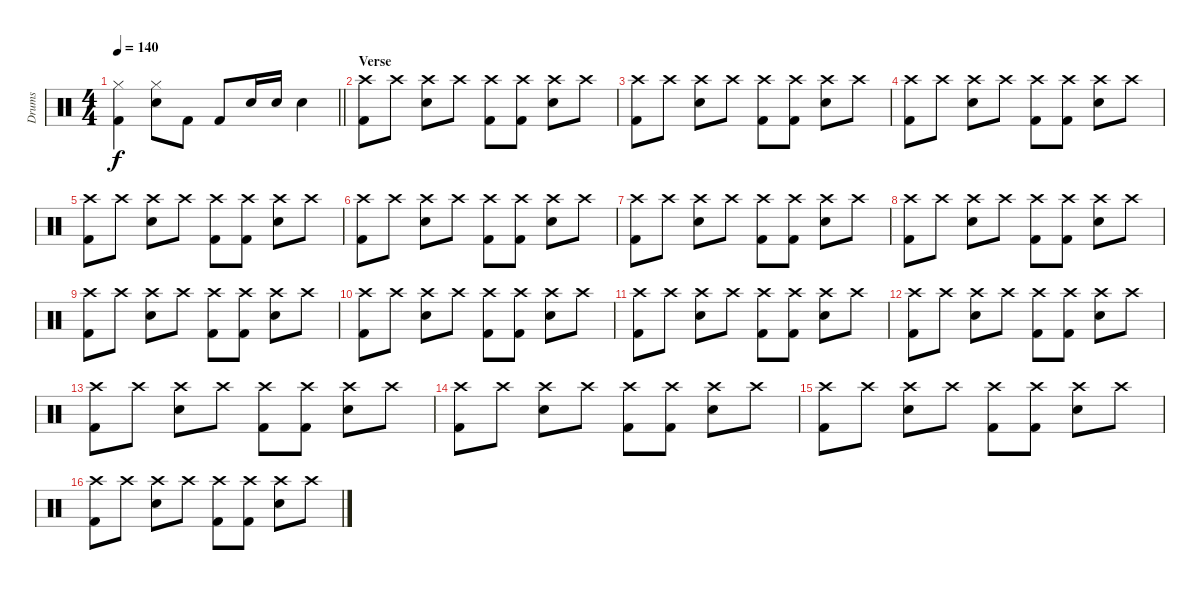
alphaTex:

\track ("Drums" "Drums") {instrument percussion}
\staff {score}
\articulation defaults
\ts (4 4)
\tempo 140
\clef neutral
\barLineRight lightlight
\ks c
("Hi-Hat (closed)" "Kick (hit) 2").4{dy f} ("Hi-Hat (closed)" "Electric Snare (hit)").8 "Kick (hit) 2".8 "Kick (hit) 2".8 "Electric Snare (hit)".16 "Electric Snare (hit)".16 "Electric Snare (hit)".4 |
\section ("" "Verse")
("Crash high (hit)" "Kick (hit) 2").8 "Crash high (hit)".8 ("Crash high (hit)" "Electric Snare (hit)").8 "Crash high (hit)".8 ("Crash high (hit)" "Kick (hit) 2").8 ("Crash high (hit)" "Kick (hit) 2").8 ("Crash high (hit)" "Electric Snare (hit)").8 "Crash high (hit)".8 |
("Crash high (hit)" "Kick (hit) 2").8 "Crash high (hit)".8 ("Crash high (hit)" "Electric Snare (hit)").8 "Crash high (hit)".8 ("Crash high (hit)" "Kick (hit) 2").8 ("Crash high (hit)" "Kick (hit) 2").8 ("Crash high (hit)" "Electric Snare (hit)").8 "Crash high (hit)".8 |
("Crash high (hit)" "Kick (hit) 2").8 "Crash high (hit)".8 ("Crash high (hit)" "Electric Snare (hit)").8 "Crash high (hit)".8 ("Crash high (hit)" "Kick (hit) 2").8 ("Crash high (hit)" "Kick (hit) 2").8 ("Crash high (hit)" "Electric Snare (hit)").8 "Crash high (hit)".8 |
("Crash high (hit)" "Kick (hit) 2").8 "Crash high (hit)".8 ("Crash high (hit)" "Electric Snare (hit)").8 "Crash high (hit)".8 ("Crash high (hit)" "Kick (hit) 2").8 ("Crash high (hit)" "Kick (hit) 2").8 ("Crash high (hit)" "Electric Snare (hit)").8 "Crash high (hit)".8 |
("Crash high (hit)" "Kick (hit) 2").8 "Crash high (hit)".8 ("Crash high (hit)" "Electric Snare (hit)").8 "Crash high (hit)".8 ("Crash high (hit)" "Kick (hit) 2").8 ("Crash high (hit)" "Kick (hit) 2").8 ("Crash high (hit)" "Electric Snare (hit)").8 "Crash high (hit)".8 |
("Crash high (hit)" "Kick (hit) 2").8 "Crash high (hit)".8 ("Crash high (hit)" "Electric Snare (hit)").8 "Crash high (hit)".8 ("Crash high (hit)" "Kick (hit) 2").8 ("Crash high (hit)" "Kick (hit) 2").8 ("Crash high (hit)" "Electric Snare (hit)").8 "Crash high (hit)".8 |
("Crash high (hit)" "Kick (hit) 2").8 "Crash high (hit)".8 ("Crash high (hit)" "Electric Snare (hit)").8 "Crash high (hit)".8 ("Crash high (hit)" "Kick (hit) 2").8 ("Crash high (hit)" "Kick (hit) 2").8 ("Crash high (hit)" "Electric Snare (hit)").8 "Crash high (hit)".8 |
("Crash high (hit)" "Kick (hit) 2").8 "Crash high (hit)".8 ("Crash high (hit)" "Electric Snare (hit)").8 "Crash high (hit)".8 ("Crash high (hit)" "Kick (hit) 2").8 ("Crash high (hit)" "Kick (hit) 2").8 ("Crash high (hit)" "Electric Snare (hit)").8 "Crash high (hit)".8 |
("Crash high (hit)" "Kick (hit) 2").8 "Crash high (hit)".8 ("Crash high (hit)" "Electric Snare (hit)").8 "Crash high (hit)".8 ("Crash high (hit)" "Kick (hit) 2").8 ("Crash high (hit)" "Kick (hit) 2").8 ("Crash high (hit)" "Electric Snare (hit)").8 "Crash high (hit)".8 |
("Crash high (hit)" "Kick (hit) 2").8 "Crash high (hit)".8 ("Crash high (hit)" "Electric Snare (hit)").8 "Crash high (hit)".8 ("Crash high (hit)" "Kick (hit) 2").8 ("Crash high (hit)" "Kick (hit) 2").8 ("Crash high (hit)" "Electric Snare (hit)").8 "Crash high (hit)".8 |
("Crash high (hit)" "Kick (hit) 2").8 "Crash high (hit)".8 ("Crash high (hit)" "Electric Snare (hit)").8 "Crash high (hit)".8 ("Crash high (hit)" "Kick (hit) 2").8 ("Crash high (hit)" "Kick (hit) 2").8 ("Crash high (hit)" "Electric Snare (hit)").8 "Crash high (hit)".8 |
("Crash high (hit)" "Kick (hit) 2").8 "Crash high (hit)".8 ("Crash high (hit)" "Electric Snare (hit)").8 "Crash high (hit)".8 ("Crash high (hit)" "Kick (hit) 2").8 ("Crash high (hit)" "Kick (hit) 2").8 ("Crash high (hit)" "Electric Snare (hit)").8 "Crash high (hit)".8 |
("Crash high (hit)" "Kick (hit) 2").8 "Crash high (hit)".8 ("Crash high (hit)" "Electric Snare (hit)").8 "Crash high (hit)".8 ("Crash high (hit)" "Kick (hit) 2").8 ("Crash high (hit)" "Kick (hit) 2").8 ("Crash high (hit)" "Electric Snare (hit)").8 "Crash high (hit)".8 |
("Crash high (hit)" "Kick (hit) 2").8 "Crash high (hit)".8 ("Crash high (hit)" "Electric Snare (hit)").8 "Crash high (hit)".8 ("Crash high (hit)" "Kick (hit) 2").8 ("Crash high (hit)" "Kick (hit) 2").8 ("Crash high (hit)" "Electric Snare (hit)").8 "Crash high (hit)".8 |
("Crash high (hit)" "Kick (hit) 2").8 "Crash high (hit)".8 ("Crash high (hit)" "Electric Snare (hit)").8 "Crash high (hit)".8 ("Crash high (hit)" "Kick (hit) 2").8 ("Crash high (hit)" "Kick (hit) 2").8 ("Crash high (hit)" "Electric Snare (hit)").8 "Crash high (hit)".8
